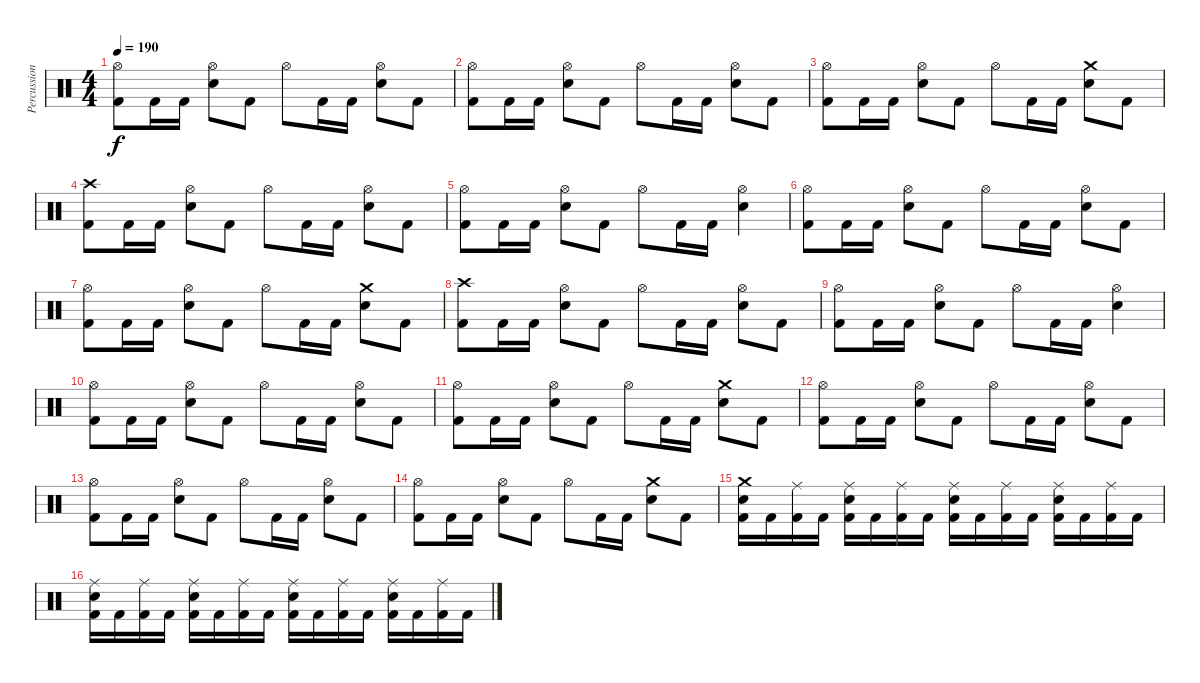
\track ("Percussion" "Percussion") {instrument percussion}
\staff {score}
\articulation defaults
\ts (4 4)
\tempo 190
\clef neutral
\ks c
("Hi-Hat (open)" "Kick (hit) 2").8{dy f} "Kick (hit) 2".16 "Kick (hit) 2".16 ("Hi-Hat (open)" "Snare (hit) 2").8 "Kick (hit) 2".8 "Hi-Hat (open)".8 "Kick (hit) 2".16 "Kick (hit) 2".16 ("Hi-Hat (open)" "Snare (hit) 2").8 "Kick (hit) 2".8 |
("Hi-Hat (open)" "Kick (hit) 2").8 "Kick (hit) 2".16 "Kick (hit) 2".16 ("Hi-Hat (open)" "Snare (hit) 2").8 "Kick (hit) 2".8 "Hi-Hat (open)".8 "Kick (hit) 2".16 "Kick (hit) 2".16 ("Hi-Hat (open)" "Snare (hit) 2").8 "Kick (hit) 2".8 |
("Hi-Hat (open)" "Kick (hit) 2").8 "Kick (hit) 2".16 "Kick (hit) 2".16 ("Hi-Hat (open)" "Snare (hit) 2").8 "Kick (hit) 2".8 "Hi-Hat (open)".8 "Kick (hit) 2".16 "Kick (hit) 2".16 ("Crash medium (hit)" "Snare (hit) 2").8 "Kick (hit) 2".8 |
("Crash high (hit)" "Kick (hit) 2").8 "Kick (hit) 2".16 "Kick (hit) 2".16 ("Hi-Hat (open)" "Snare (hit) 2").8 "Kick (hit) 2".8 "Hi-Hat (open)".8 "Kick (hit) 2".16 "Kick (hit) 2".16 ("Hi-Hat (open)" "Snare (hit) 2").8 "Kick (hit) 2".8 |
("Hi-Hat (open)" "Kick (hit) 2").8 "Kick (hit) 2".16 "Kick (hit) 2".16 ("Hi-Hat (open)" "Snare (hit) 2").8 "Kick (hit) 2".8 "Hi-Hat (open)".8 "Kick (hit) 2".16 "Kick (hit) 2".16 ("Hi-Hat (open)" "Snare (hit) 2").4 |
("Hi-Hat (open)" "Kick (hit) 2").8 "Kick (hit) 2".16 "Kick (hit) 2".16 ("Hi-Hat (open)" "Snare (hit) 2").8 "Kick (hit) 2".8 "Hi-Hat (open)".8 "Kick (hit) 2".16 "Kick (hit) 2".16 ("Hi-Hat (open)" "Snare (hit) 2").8 "Kick (hit) 2".8 |
("Hi-Hat (open)" "Kick (hit) 2").8 "Kick (hit) 2".16 "Kick (hit) 2".16 ("Hi-Hat (open)" "Snare (hit) 2").8 "Kick (hit) 2".8 "Hi-Hat (open)".8 "Kick (hit) 2".16 "Kick (hit) 2".16 ("Crash medium (hit)" "Snare (hit) 2").8 "Kick (hit) 2".8 |
("Crash high (hit)" "Kick (hit) 2").8 "Kick (hit) 2".16 "Kick (hit) 2".16 ("Hi-Hat (open)" "Snare (hit) 2").8 "Kick (hit) 2".8 "Hi-Hat (open)".8 "Kick (hit) 2".16 "Kick (hit) 2".16 ("Hi-Hat (open)" "Snare (hit) 2").8 "Kick (hit) 2".8 |
("Hi-Hat (open)" "Kick (hit) 2").8 "Kick (hit) 2".16 "Kick (hit) 2".16 ("Hi-Hat (open)" "Snare (hit) 2").8 "Kick (hit) 2".8 "Hi-Hat (open)".8 "Kick (hit) 2".16 "Kick (hit) 2".16 ("Hi-Hat (open)" "Snare (hit) 2").4 |
("Hi-Hat (open)" "Kick (hit) 2").8 "Kick (hit) 2".16 "Kick (hit) 2".16 ("Hi-Hat (open)" "Snare (hit) 2").8 "Kick (hit) 2".8 "Hi-Hat (open)".8 "Kick (hit) 2".16 "Kick (hit) 2".16 ("Hi-Hat (open)" "Snare (hit) 2").8 "Kick (hit) 2".8 |
("Hi-Hat (open)" "Kick (hit) 2").8 "Kick (hit) 2".16 "Kick (hit) 2".16 ("Hi-Hat (open)" "Snare (hit) 2").8 "Kick (hit) 2".8 "Hi-Hat (open)".8 "Kick (hit) 2".16 "Kick (hit) 2".16 ("Crash medium (hit)" "Snare (hit) 2").8 "Kick (hit) 2".8 |
("Hi-Hat (open)" "Kick (hit) 2").8 "Kick (hit) 2".16 "Kick (hit) 2".16 ("Hi-Hat (open)" "Snare (hit) 2").8 "Kick (hit) 2".8 "Hi-Hat (open)".8 "Kick (hit) 2".16 "Kick (hit) 2".16 ("Hi-Hat (open)" "Snare (hit) 2").8 "Kick (hit) 2".8 |
("Hi-Hat (open)" "Kick (hit) 2").8 "Kick (hit) 2".16 "Kick (hit) 2".16 ("Hi-Hat (open)" "Snare (hit) 2").8 "Kick (hit) 2".8 "Hi-Hat (open)".8 "Kick (hit) 2".16 "Kick (hit) 2".16 ("Hi-Hat (open)" "Snare (hit) 2").8 "Kick (hit) 2".8 |
("Hi-Hat (open)" "Kick (hit) 2").8 "Kick (hit) 2".16 "Kick (hit) 2".16 ("Hi-Hat (open)" "Snare (hit) 2").8 "Kick (hit) 2".8 "Hi-Hat (open)".8 "Kick (hit) 2".16 "Kick (hit) 2".16 ("Crash medium (hit)" "Snare (hit) 2").8 "Kick (hit) 2".8 |
("Crash medium (hit)" "Snare (hit) 2" "Kick (hit) 2").16 "Kick (hit) 2".16 ("Ride (middle)" "Kick (hit) 2").16 "Kick (hit) 2".16 ("Ride (middle)" "Snare (hit) 2" "Kick (hit) 2").16 "Kick (hit) 2".16 ("Ride (middle)" "Kick (hit) 2").16 "Kick (hit) 2".16 ("Ride (middle)" "Snare (hit) 2" "Kick (hit) 2").16 "Kick (hit) 2".16 ("Ride (middle)" "Kick (hit) 2").16 "Kick (hit) 2".16 ("Ride (middle)" "Snare (hit) 2" "Kick (hit) 2").16 "Kick (hit) 2".16 ("Ride (middle)" "Kick (hit) 2").16 "Kick (hit) 2".16 |
("Ride (middle)" "Snare (hit) 2" "Kick (hit) 2").16 "Kick (hit) 2".16 ("Ride (middle)" "Kick (hit) 2").16 "Kick (hit) 2".16 ("Ride (middle)" "Snare (hit) 2" "Kick (hit) 2").16 "Kick (hit) 2".16 ("Ride (middle)" "Kick (hit) 2").16 "Kick (hit) 2".16 ("Ride (middle)" "Snare (hit) 2" "Kick (hit) 2").16 "Kick (hit) 2".16 ("Ride (middle)" "Kick (hit) 2").16 "Kick (hit) 2".16 ("Ride (middle)" "Snare (hit) 2" "Kick (hit) 2").16 "Kick (hit) 2".16 ("Ride (middle)" "Kick (hit) 2").16 "Kick (hit) 2".16
